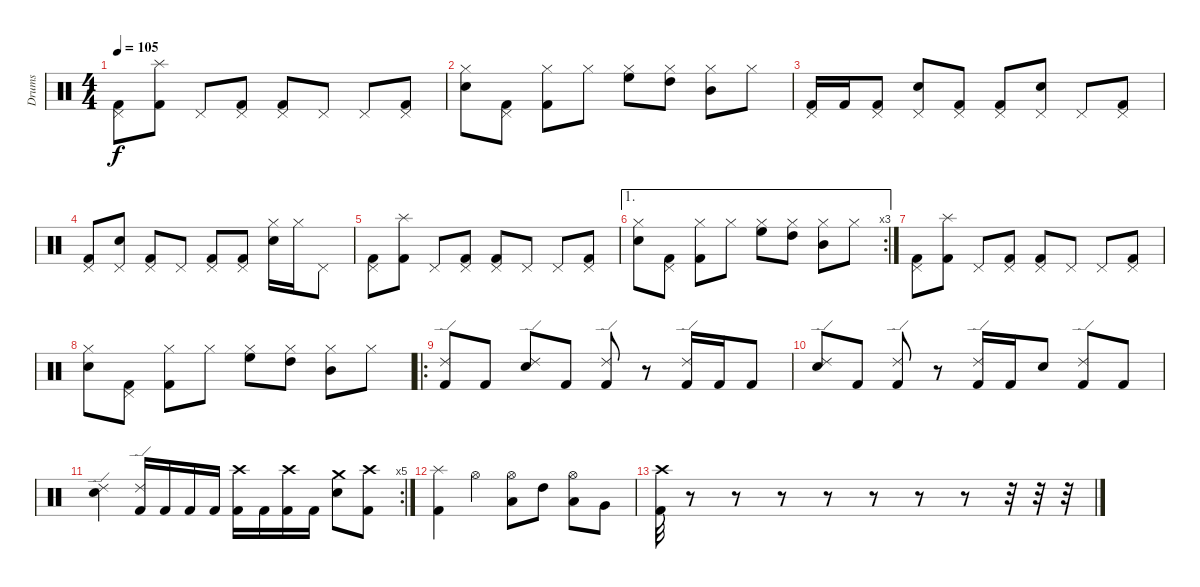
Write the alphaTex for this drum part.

\track (" Drums" " Drums") {instrument percussion}
\staff {score}
\articulation defaults
\ts (4 4)
\tempo 105
\clef neutral
\ks c
("Pedal Hi-Hat (hit)" "Kick (hit) 2").8{dy f} ("Splash (hit)" "Kick (hit) 2").8 "Pedal Hi-Hat (hit)".8 ("Pedal Hi-Hat (hit)" "Kick (hit) 2").8 ("Pedal Hi-Hat (hit)" "Kick (hit) 2").8 "Pedal Hi-Hat (hit)".8 "Pedal Hi-Hat (hit)".8 ("Pedal Hi-Hat (hit)" "Kick (hit) 2").8 |
("Hi-Hat (closed)" "Electric Snare (hit)").8 ("Pedal Hi-Hat (hit)" "Kick (hit) 2").8 ("Hi-Hat (closed)" "Kick (hit) 2").8 "Hi-Hat (closed)".8 ("Hi-Hat (closed)" "High Floor Tom (hit)").8 ("Hi-Hat (closed)" "High Tom (hit)").8 ("Hi-Hat (closed)" "Mid Tom (hit)").8 "Hi-Hat (closed)".8 |
("Pedal Hi-Hat (hit)" "Kick (hit) 2").16 "Kick (hit) 2".16 ("Pedal Hi-Hat (hit)" "Kick (hit) 2").8 ("Pedal Hi-Hat (hit)" "Electric Snare (hit)").8 ("Pedal Hi-Hat (hit)" "Kick (hit) 2").8 ("Pedal Hi-Hat (hit)" "Kick (hit) 2").8 ("Pedal Hi-Hat (hit)" "Electric Snare (hit)").8 "Pedal Hi-Hat (hit)".8 ("Pedal Hi-Hat (hit)" "Kick (hit) 2").8 |
("Pedal Hi-Hat (hit)" "Kick (hit) 2").8 ("Pedal Hi-Hat (hit)" "Electric Snare (hit)").8 ("Pedal Hi-Hat (hit)" "Kick (hit) 2").8 "Pedal Hi-Hat (hit)".8 ("Pedal Hi-Hat (hit)" "Kick (hit) 2").8 ("Pedal Hi-Hat (hit)" "Kick (hit) 2").8 ("Hi-Hat (closed)" "Electric Snare (hit)").16 "Hi-Hat (closed)".16 "Pedal Hi-Hat (hit)".8 |
("Pedal Hi-Hat (hit)" "Kick (hit) 2").8 ("Splash (hit)" "Kick (hit) 2").8 "Pedal Hi-Hat (hit)".8 ("Pedal Hi-Hat (hit)" "Kick (hit) 2").8 ("Pedal Hi-Hat (hit)" "Kick (hit) 2").8 "Pedal Hi-Hat (hit)".8 "Pedal Hi-Hat (hit)".8 ("Pedal Hi-Hat (hit)" "Kick (hit) 2").8 |
\ae 1
\rc 3
("Hi-Hat (closed)" "Electric Snare (hit)").8 ("Pedal Hi-Hat (hit)" "Kick (hit) 2").8 ("Hi-Hat (closed)" "Kick (hit) 2").8 "Hi-Hat (closed)".8 ("Hi-Hat (closed)" "High Floor Tom (hit)").8 ("Hi-Hat (closed)" "High Tom (hit)").8 ("Hi-Hat (closed)" "Mid Tom (hit)").8 "Hi-Hat (closed)".8 |
("Pedal Hi-Hat (hit)" "Kick (hit) 2").8 ("Splash (hit)" "Kick (hit) 2").8 "Pedal Hi-Hat (hit)".8 ("Pedal Hi-Hat (hit)" "Kick (hit) 2").8 ("Pedal Hi-Hat (hit)" "Kick (hit) 2").8 "Pedal Hi-Hat (hit)".8 "Pedal Hi-Hat (hit)".8 ("Pedal Hi-Hat (hit)" "Kick (hit) 2").8 |
("Hi-Hat (closed)" "Electric Snare (hit)").8 ("Pedal Hi-Hat (hit)" "Kick (hit) 2").8 ("Hi-Hat (closed)" "Kick (hit) 2").8 "Hi-Hat (closed)".8 ("Hi-Hat (closed)" "High Floor Tom (hit)").8 ("Hi-Hat (closed)" "High Tom (hit)").8 ("Hi-Hat (closed)" "Mid Tom (hit)").8 "Hi-Hat (closed)".8 |
\ro
("Ride (edge) 2" "Kick (hit) 2").8 "Kick (hit) 2".8 ("Ride (edge) 2" "Electric Snare (hit)").8 "Kick (hit) 2".8 ("Ride (edge) 2" "Kick (hit) 2").8 r.8 ("Ride (edge) 2" "Kick (hit) 2").16 "Kick (hit) 2".16 "Kick (hit) 2".8 |
("Ride (edge) 2" "Electric Snare (hit)").8 "Kick (hit) 2".8 ("Ride (edge) 2" "Kick (hit) 2").8 r.8 ("Ride (edge) 2" "Kick (hit) 2").16 "Kick (hit) 2".16 "Electric Snare (hit)".8 ("Ride (edge) 2" "Kick (hit) 2").8 "Kick (hit) 2".8 |
\rc 5
("Ride (edge) 2" "Electric Snare (hit)").4 ("Ride (edge) 2" "Kick (hit) 2").16 "Kick (hit) 2".16 "Kick (hit) 2".16 "Kick (hit) 2".16 ("Crash high (hit)" "Kick (hit) 2").16 "Kick (hit) 2".16 ("Crash high (hit)" "Kick (hit) 2").16 "Kick (hit) 2".16 ("Crash medium (hit)" "Electric Snare (hit)").8 ("Crash high (hit)" "Kick (hit) 2").8 |
("Splash (hit)" "Kick (hit) 2").4 "Hi-Hat (open)".4 ("Hi-Hat (open)" "Low Floor Tom (hit)").8 "High Tom (hit)".8 ("Hi-Hat (open)" "Low Tom (hit)").8 "Very Low Tom (hit)".8 |
("Kick (hit) 2" "Crash high (hit)"{pm}).32 r.8 r.8 r.8 r.8 r.8 r.8 r.8 r.32 r.32 r.32
